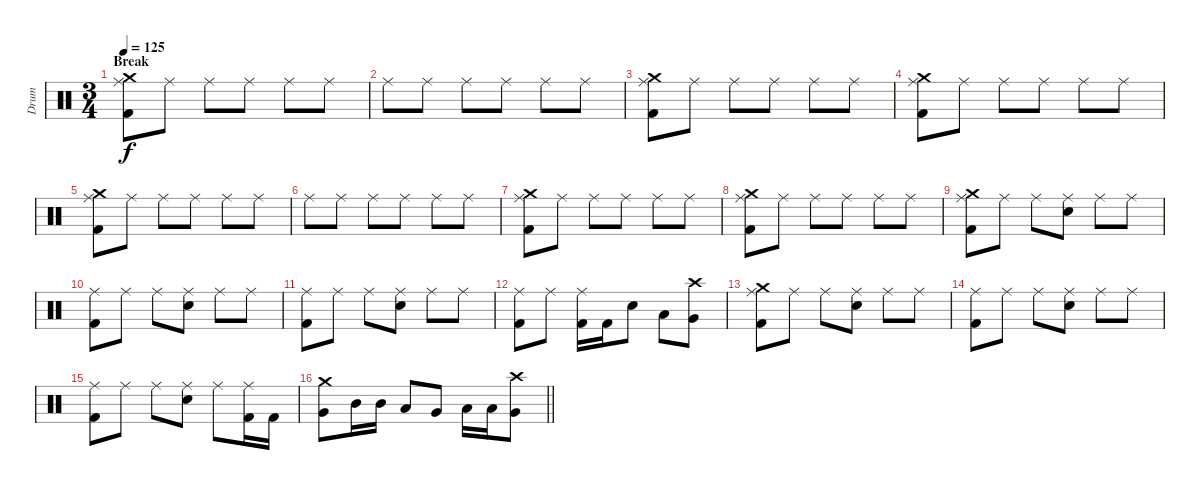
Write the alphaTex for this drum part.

\track ("Drum" "Drum") {instrument percussion}
\staff {score}
\articulation defaults
\ts (3 4)
\section ("" "Break")
\tempo 125
\clef neutral
\ks c
("Crash medium (hit)" "Ride (middle)" "Kick (hit) 2").8{dy f} "Ride (middle)".8 "Ride (middle)".8 "Ride (middle)".8 "Ride (middle)".8 "Ride (middle)".8 |
"Ride (middle)".8 "Ride (middle)".8 "Ride (middle)".8 "Ride (middle)".8 "Ride (middle)".8 "Ride (middle)".8 |
("Crash medium (hit)" "Ride (middle)" "Kick (hit) 2").8 "Ride (middle)".8 "Ride (middle)".8 "Ride (middle)".8 "Ride (middle)".8 "Ride (middle)".8 |
("Crash medium (hit)" "Ride (middle)" "Kick (hit) 2").8 "Ride (middle)".8 "Ride (middle)".8 "Ride (middle)".8 "Ride (middle)".8 "Ride (middle)".8 |
("Crash medium (hit)" "Ride (middle)" "Kick (hit) 2").8 "Ride (middle)".8 "Ride (middle)".8 "Ride (middle)".8 "Ride (middle)".8 "Ride (middle)".8 |
"Ride (middle)".8 "Ride (middle)".8 "Ride (middle)".8 "Ride (middle)".8 "Ride (middle)".8 "Ride (middle)".8 |
("Crash medium (hit)" "Ride (middle)" "Kick (hit) 2").8 "Ride (middle)".8 "Ride (middle)".8 "Ride (middle)".8 "Ride (middle)".8 "Ride (middle)".8 |
("Crash medium (hit)" "Ride (middle)" "Kick (hit) 2").8 "Ride (middle)".8 "Ride (middle)".8 "Ride (middle)".8 "Ride (middle)".8 "Ride (middle)".8 |
("Crash medium (hit)" "Ride (middle)" "Kick (hit) 2").8 "Ride (middle)".8 "Ride (middle)".8 ("Ride (middle)" "Electric Snare (hit)").8 "Ride (middle)".8 "Ride (middle)".8 |
("Ride (middle)" "Kick (hit) 2").8 "Ride (middle)".8 "Ride (middle)".8 ("Ride (middle)" "Electric Snare (hit)").8 "Ride (middle)".8 "Ride (middle)".8 |
("Ride (middle)" "Kick (hit) 2").8 "Ride (middle)".8 "Ride (middle)".8 ("Ride (middle)" "Electric Snare (hit)").8 "Ride (middle)".8 "Ride (middle)".8 |
("Ride (middle)" "Kick (hit) 2").8 "Ride (middle)".8 ("Ride (middle)" "Kick (hit) 2").16 "Kick (hit) 2".16 "Electric Snare (hit)".8 "Low Tom (hit)".8 ("Crash high (hit)" "Very Low Tom (hit)").8 |
("Crash medium (hit)" "Ride (middle)" "Kick (hit) 2").8 "Ride (middle)".8 "Ride (middle)".8 ("Ride (middle)" "Electric Snare (hit)").8 "Ride (middle)".8 "Ride (middle)".8 |
("Ride (middle)" "Kick (hit) 2").8 "Ride (middle)".8 "Ride (middle)".8 ("Ride (middle)" "Electric Snare (hit)").8 "Ride (middle)".8 "Ride (middle)".8 |
("Ride (middle)" "Kick (hit) 2").8 "Ride (middle)".8 "Ride (middle)".8 ("Ride (middle)" "Electric Snare (hit)").8 "Ride (middle)".8 ("Ride (middle)" "Kick (hit) 2").16 "Kick (hit) 2".16 |
\barLineRight lightlight
("Crash medium (hit)" "Very Low Tom (hit)").8 "Mid Tom (hit)".16 "Mid Tom (hit)".16 "Low Tom (hit)".8 "Very Low Tom (hit)".8 "Low Tom (hit)".16 "Low Tom (hit)".16 ("Crash high (hit)" "Very Low Tom (hit)").8
